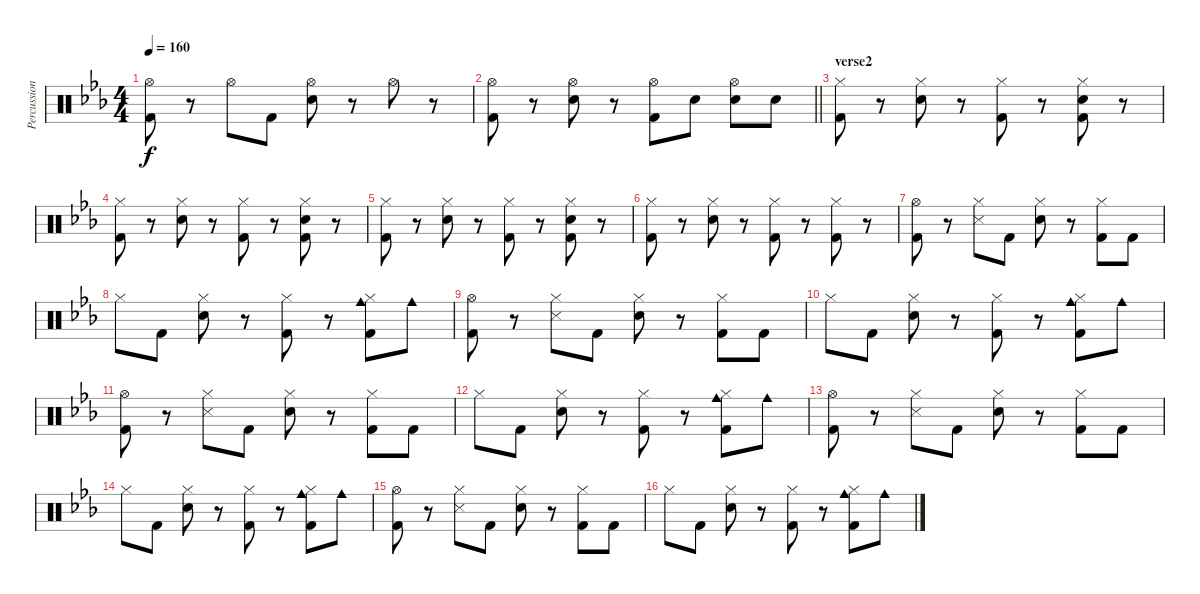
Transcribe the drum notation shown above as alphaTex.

\track ("Percussion" "Percussion") {instrument percussion}
\staff {score}
\articulation defaults
\ts (4 4)
\tempo 160
\clef neutral
\ks cminor
("Hi-Hat (open)" "Kick (hit) 2").8{dy f} r.8 "Hi-Hat (open)".8 "Kick (hit) 2".8 ("Hi-Hat (open)" "Snare (hit) 2").8 r.8 "Hi-Hat (open)".8 r.8 |
\barLineRight lightlight
("Hi-Hat (open)" "Kick (hit) 2").8 r.8 ("Hi-Hat (open)" "Snare (hit) 2").8 r.8 ("Hi-Hat (open)" "Kick (hit) 2").8 "Snare (hit) 2".8 ("Hi-Hat (open)" "Snare (hit) 2").8 "Snare (hit) 2".8 |
\section ("" "verse2")
("Hi-Hat (closed)" "Kick (hit) 2").8 r.8 ("Hi-Hat (closed)" "Snare (hit) 2").8 r.8 ("Hi-Hat (closed)" "Kick (hit) 2").8 r.8 ("Hi-Hat (closed)" "Snare (hit) 2" "Kick (hit) 2").8 r.8 |
("Hi-Hat (closed)" "Kick (hit) 2").8 r.8 ("Hi-Hat (closed)" "Snare (hit) 2").8 r.8 ("Hi-Hat (closed)" "Kick (hit) 2").8 r.8 ("Hi-Hat (closed)" "Snare (hit) 2" "Kick (hit) 2").8 r.8 |
("Hi-Hat (closed)" "Kick (hit) 2").8 r.8 ("Hi-Hat (closed)" "Snare (hit) 2").8 r.8 ("Hi-Hat (closed)" "Kick (hit) 2").8 r.8 ("Hi-Hat (closed)" "Snare (hit) 2" "Kick (hit) 2").8 r.8 |
("Hi-Hat (closed)" "Kick (hit) 2").8 r.8 ("Hi-Hat (closed)" "Snare (hit) 2").8 r.8 ("Hi-Hat (closed)" "Kick (hit) 2").8 r.8 ("Hi-Hat (closed)" "Kick (hit) 2").8 r.8 |
("Hi-Hat (open)" "Kick (hit) 2").8 r.8 ("Hi-Hat (closed)" "Snare (side stick) 3").8 "Kick (hit) 2".8 ("Hi-Hat (closed)" "Snare (hit) 2").8 r.8 ("Hi-Hat (closed)" "Kick (hit) 2").8 "Kick (hit) 2".8 |
"Hi-Hat (closed)".8 "Kick (hit) 2".8 ("Hi-Hat (closed)" "Snare (hit) 2").8 r.8 ("Hi-Hat (closed)" "Kick (hit) 2").8 r.8 ("Cowbell medium (hit)" "Hi-Hat (closed)" "Kick (hit) 2").8 "Cowbell medium (hit)".8 |
("Hi-Hat (open)" "Kick (hit) 2").8 r.8 ("Hi-Hat (closed)" "Snare (side stick) 3").8 "Kick (hit) 2".8 ("Hi-Hat (closed)" "Snare (hit) 2").8 r.8 ("Hi-Hat (closed)" "Kick (hit) 2").8 "Kick (hit) 2".8 |
"Hi-Hat (closed)".8 "Kick (hit) 2".8 ("Hi-Hat (closed)" "Snare (hit) 2").8 r.8 ("Hi-Hat (closed)" "Kick (hit) 2").8 r.8 ("Cowbell medium (hit)" "Hi-Hat (closed)" "Kick (hit) 2").8 "Cowbell medium (hit)".8 |
("Hi-Hat (open)" "Kick (hit) 2").8 r.8 ("Hi-Hat (closed)" "Snare (side stick) 3").8 "Kick (hit) 2".8 ("Hi-Hat (closed)" "Snare (hit) 2").8 r.8 ("Hi-Hat (closed)" "Kick (hit) 2").8 "Kick (hit) 2".8 |
"Hi-Hat (closed)".8 "Kick (hit) 2".8 ("Hi-Hat (closed)" "Snare (hit) 2").8 r.8 ("Hi-Hat (closed)" "Kick (hit) 2").8 r.8 ("Cowbell medium (hit)" "Hi-Hat (closed)" "Kick (hit) 2").8 "Cowbell medium (hit)".8 |
("Hi-Hat (open)" "Kick (hit) 2").8 r.8 ("Hi-Hat (closed)" "Snare (side stick) 3").8 "Kick (hit) 2".8 ("Hi-Hat (closed)" "Snare (hit) 2").8 r.8 ("Hi-Hat (closed)" "Kick (hit) 2").8 "Kick (hit) 2".8 |
"Hi-Hat (closed)".8 "Kick (hit) 2".8 ("Hi-Hat (closed)" "Snare (hit) 2").8 r.8 ("Hi-Hat (closed)" "Kick (hit) 2").8 r.8 ("Cowbell medium (hit)" "Hi-Hat (closed)" "Kick (hit) 2").8 "Cowbell medium (hit)".8 |
("Hi-Hat (open)" "Kick (hit) 2").8 r.8 ("Hi-Hat (closed)" "Snare (side stick) 3").8 "Kick (hit) 2".8 ("Hi-Hat (closed)" "Snare (hit) 2").8 r.8 ("Hi-Hat (closed)" "Kick (hit) 2").8 "Kick (hit) 2".8 |
"Hi-Hat (closed)".8 "Kick (hit) 2".8 ("Hi-Hat (closed)" "Snare (hit) 2").8 r.8 ("Hi-Hat (closed)" "Kick (hit) 2").8 r.8 ("Cowbell medium (hit)" "Hi-Hat (closed)" "Kick (hit) 2").8 "Cowbell medium (hit)".8
